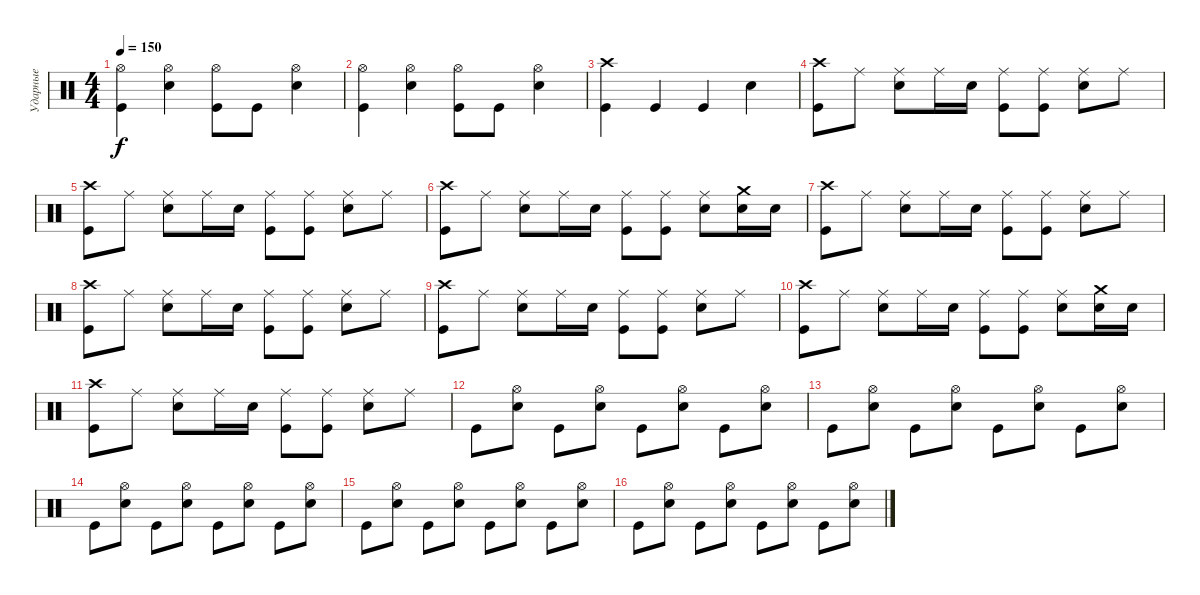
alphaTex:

\track ("Ударные" "Ударные") {instrument percussion}
\staff {score}
\articulation defaults
\ts (4 4)
\tempo 150
\clef neutral
\ks c
("Hi-Hat (open)" "Kick (hit)").4{dy f} ("Hi-Hat (open)" "Snare (hit) 2").4 ("Hi-Hat (open)" "Kick (hit)").8 "Kick (hit)".8 ("Hi-Hat (open)" "Snare (hit) 2").4 |
("Hi-Hat (open)" "Kick (hit)").4 ("Hi-Hat (open)" "Snare (hit) 2").4 ("Hi-Hat (open)" "Kick (hit)").8 "Kick (hit)".8 ("Hi-Hat (open)" "Snare (hit) 2").4 |
("Crash high (hit)" "Kick (hit)").4 "Kick (hit)".4 "Kick (hit)".4 "Snare (hit) 2".4 |
("Crash high (hit)" "Kick (hit)").8 "Ride (middle)".8 ("Ride (middle)" "Snare (hit) 2").8 "Ride (middle)".16 "Snare (hit) 2".16 ("Ride (middle)" "Kick (hit)").8 ("Ride (middle)" "Kick (hit)").8 ("Ride (middle)" "Snare (hit) 2").8 "Ride (middle)".8 |
("Crash high (hit)" "Kick (hit)").8 "Ride (middle)".8 ("Ride (middle)" "Snare (hit) 2").8 "Ride (middle)".16 "Snare (hit) 2".16 ("Ride (middle)" "Kick (hit)").8 ("Ride (middle)" "Kick (hit)").8 ("Ride (middle)" "Snare (hit) 2").8 "Ride (middle)".8 |
("Crash high (hit)" "Kick (hit)").8 "Ride (middle)".8 ("Ride (middle)" "Snare (hit) 2").8 "Ride (middle)".16 "Snare (hit) 2".16 ("Ride (middle)" "Kick (hit)").8 ("Ride (middle)" "Kick (hit)").8 ("Ride (middle)" "Snare (hit) 2").8 ("Crash medium (hit)" "Snare (hit) 2").16 "Snare (hit) 2".16 |
("Crash high (hit)" "Kick (hit)").8 "Ride (middle)".8 ("Ride (middle)" "Snare (hit) 2").8 "Ride (middle)".16 "Snare (hit) 2".16 ("Ride (middle)" "Kick (hit)").8 ("Ride (middle)" "Kick (hit)").8 ("Ride (middle)" "Snare (hit) 2").8 "Ride (middle)".8 |
("Crash high (hit)" "Kick (hit)").8 "Ride (middle)".8 ("Ride (middle)" "Snare (hit) 2").8 "Ride (middle)".16 "Snare (hit) 2".16 ("Ride (middle)" "Kick (hit)").8 ("Ride (middle)" "Kick (hit)").8 ("Ride (middle)" "Snare (hit) 2").8 "Ride (middle)".8 |
("Crash high (hit)" "Kick (hit)").8 "Ride (middle)".8 ("Ride (middle)" "Snare (hit) 2").8 "Ride (middle)".16 "Snare (hit) 2".16 ("Ride (middle)" "Kick (hit)").8 ("Ride (middle)" "Kick (hit)").8 ("Ride (middle)" "Snare (hit) 2").8 "Ride (middle)".8 |
("Crash high (hit)" "Kick (hit)").8 "Ride (middle)".8 ("Ride (middle)" "Snare (hit) 2").8 "Ride (middle)".16 "Snare (hit) 2".16 ("Ride (middle)" "Kick (hit)").8 ("Ride (middle)" "Kick (hit)").8 ("Ride (middle)" "Snare (hit) 2").8 ("Crash medium (hit)" "Snare (hit) 2").16 "Snare (hit) 2".16 |
("Crash high (hit)" "Kick (hit)").8 "Ride (middle)".8 ("Ride (middle)" "Snare (hit) 2").8 "Ride (middle)".16 "Snare (hit) 2".16 ("Ride (middle)" "Kick (hit)").8 ("Ride (middle)" "Kick (hit)").8 ("Ride (middle)" "Snare (hit) 2").8 "Ride (middle)".8 |
"Kick (hit)".8 ("Hi-Hat (open)" "Snare (hit) 2").8 "Kick (hit)".8 ("Hi-Hat (open)" "Snare (hit) 2").8 "Kick (hit)".8 ("Hi-Hat (open)" "Snare (hit) 2").8 "Kick (hit)".8 ("Hi-Hat (open)" "Snare (hit) 2").8 |
"Kick (hit)".8 ("Hi-Hat (open)" "Snare (hit) 2").8 "Kick (hit)".8 ("Hi-Hat (open)" "Snare (hit) 2").8 "Kick (hit)".8 ("Hi-Hat (open)" "Snare (hit) 2").8 "Kick (hit)".8 ("Hi-Hat (open)" "Snare (hit) 2").8 |
"Kick (hit)".8 ("Hi-Hat (open)" "Snare (hit) 2").8 "Kick (hit)".8 ("Hi-Hat (open)" "Snare (hit) 2").8 "Kick (hit)".8 ("Hi-Hat (open)" "Snare (hit) 2").8 "Kick (hit)".8 ("Hi-Hat (open)" "Snare (hit) 2").8 |
"Kick (hit)".8 ("Hi-Hat (open)" "Snare (hit) 2").8 "Kick (hit)".8 ("Hi-Hat (open)" "Snare (hit) 2").8 "Kick (hit)".8 ("Hi-Hat (open)" "Snare (hit) 2").8 "Kick (hit)".8 ("Hi-Hat (open)" "Snare (hit) 2").8 |
"Kick (hit)".8 ("Hi-Hat (open)" "Snare (hit) 2").8 "Kick (hit)".8 ("Hi-Hat (open)" "Snare (hit) 2").8 "Kick (hit)".8 ("Hi-Hat (open)" "Snare (hit) 2").8 "Kick (hit)".8 ("Hi-Hat (open)" "Snare (hit) 2").8
